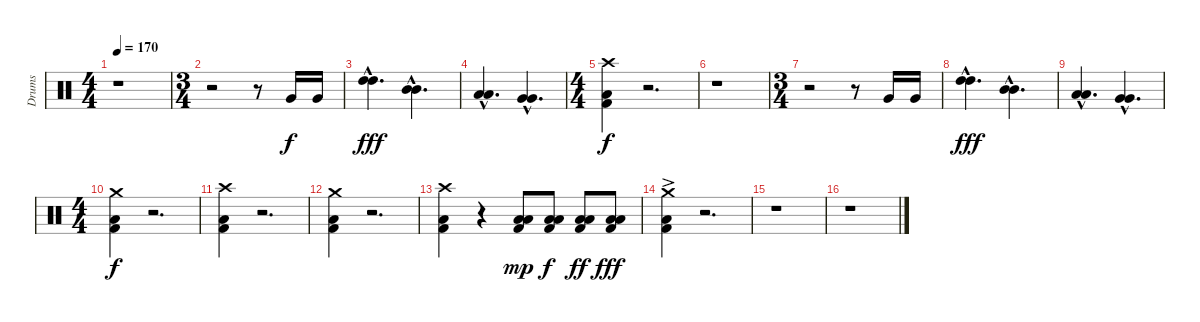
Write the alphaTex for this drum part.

\track ("Drums" "Drums") {instrument percussion}
\staff {score}
\articulation defaults
\ts (4 4)
\tempo 170
\clef neutral
\ks c
r.1{dy f} |
\ts (3 4)
r.2 r.8 "Very Low Tom (hit)".16 "Very Low Tom (hit)".16 |
("High Tom (hit)"{hac} "High Tom (hit)"{hac}).4{d dy fff} ("Mid Tom (hit)"{hac} "Mid Tom (hit)"{hac}).4{d} |
("Low Tom (hit)"{hac} "Low Tom (hit)"{hac}).4{d} ("Very Low Tom (hit)"{hac} "Very Low Tom (hit)"{hac}).4{d} |
\ts (4 4)
("Crash high (hit)" "Low Floor Tom (hit)" "Kick (hit) 2").4{dy f} r.2{d} |
r.1 |
\ts (3 4)
r.2 r.8 "Very Low Tom (hit)".16 "Very Low Tom (hit)".16 |
("High Tom (hit)"{hac} "High Tom (hit)"{hac}).4{d dy fff} ("Mid Tom (hit)"{hac} "Mid Tom (hit)"{hac}).4{d} |
("Low Tom (hit)"{hac} "Low Tom (hit)"{hac}).4{d} ("Very Low Tom (hit)"{hac} "Very Low Tom (hit)"{hac}).4{d} |
\ts (4 4)
("Crash medium (hit)" "Low Floor Tom (hit)" "Kick (hit) 2").4{dy f} r.2{d} |
("Crash high (hit)" "Low Floor Tom (hit)" "Kick (hit) 2").4 r.2{d} |
("Crash medium (hit)" "Low Floor Tom (hit)" "Kick (hit) 2").4 r.2{d} |
("Crash high (hit)" "Low Floor Tom (hit)" "Kick (hit) 2").4 r.4 ("Low Tom (hit)" "Low Tom (hit)" "Kick (hit) 2").8{dy mp} ("Low Tom (hit)" "Low Tom (hit)" "Kick (hit) 2").8{dy f} ("Low Tom (hit)" "Low Tom (hit)" "Kick (hit) 2").8{dy ff} ("Low Tom (hit)" "Low Tom (hit)" "Kick (hit) 2").8{dy fff} |
("Crash medium (hit)"{ac} "Low Floor Tom (hit)" "Kick (hit) 2"{ac}).4 r.2{d} |
r.1 |
r.1
